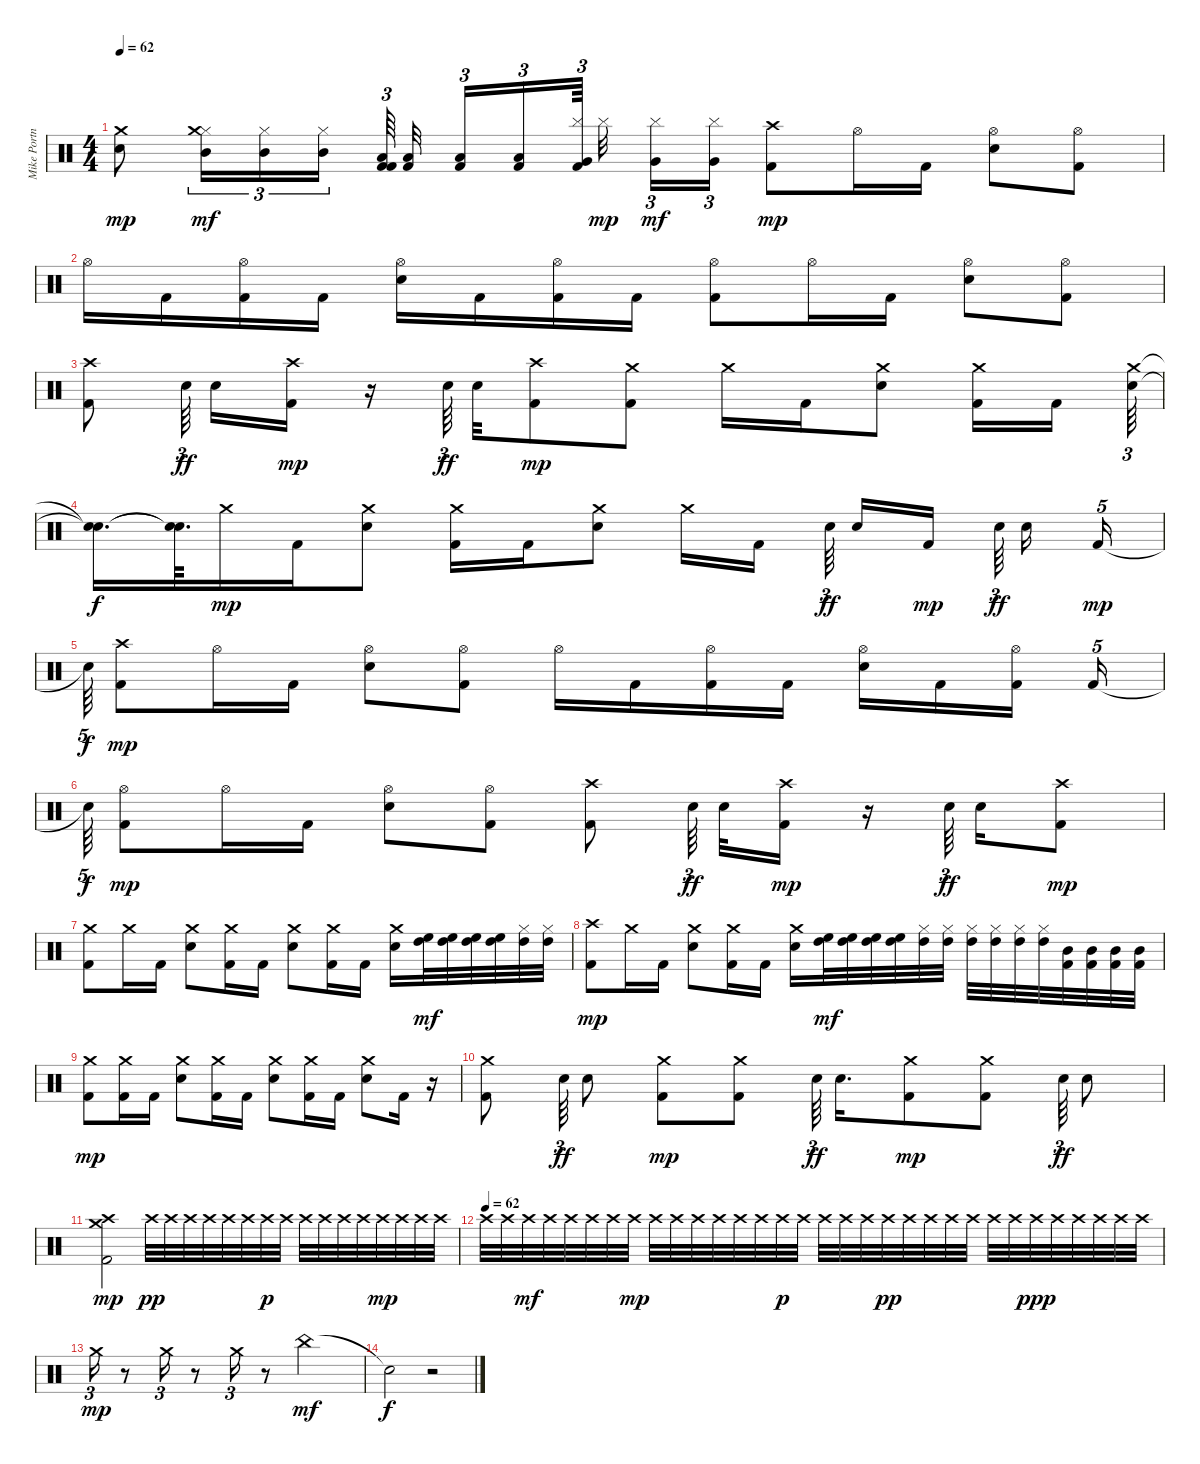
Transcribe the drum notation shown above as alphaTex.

\track ("Mike Portnoy" "Mike Portn") {instrument percussion}
\staff {score}
\articulation defaults
\ts (4 4)
\tempo 62
\clef neutral
\ks c
("Electric Snare (hit)" "Crash medium (hit)").8{dy mp} ("Hi-Hat (closed)" "Crash medium (hit)" "Mid Tom (hit)").16{tu (3 2) dy mf balance 2} ("Hi-Hat (closed)" "Mid Tom (hit)").16{tu (3 2)} ("Hi-Hat (closed)" "Mid Tom (hit)").16{tu (3 2)} ("Kick (hit) 2" "Kick (hit) 2" "Low Tom (hit)").64{tu (3 2) balance 5} ("Kick (hit) 2" "Low Tom (hit)").32 ("Kick (hit) 2" "Low Tom (hit)").16{tu (3 2)} ("Kick (hit) 2" "Low Tom (hit)").16{tu (3 2)} ("Kick (hit) 2" "Cymbal (hit)" "Very Low Tom (hit)").64{tu (3 2) balance 10} "Cymbal (hit)".32{dy mp} ("Cymbal (hit)" "Very Low Tom (hit)").16{tu (3 2) dy mf} ("Cymbal (hit)" "Very Low Tom (hit)").16{tu (3 2)} ("Kick (hit) 2" "Crash high (hit)").8{dy mp} "Hi-Hat (open)".16 "Kick (hit) 2".16 ("Electric Snare (hit)" "Hi-Hat (open)").8 ("Kick (hit) 2" "Hi-Hat (open)").8 |
"Hi-Hat (open)".16 "Kick (hit) 2".16 ("Kick (hit) 2" "Hi-Hat (open)").16 "Kick (hit) 2".16 ("Electric Snare (hit)" "Hi-Hat (open)").16 "Kick (hit) 2".16 ("Kick (hit) 2" "Hi-Hat (open)").16 "Kick (hit) 2".16 ("Kick (hit) 2" "Hi-Hat (open)").8 "Hi-Hat (open)".16 "Kick (hit) 2".16 ("Electric Snare (hit)" "Hi-Hat (open)").8 ("Kick (hit) 2" "Hi-Hat (open)").8 |
("Kick (hit) 2" "Crash high (hit)").8 "Electric Snare (hit)".64{tu (3 2) dy ff} "Electric Snare (hit)".16 ("Kick (hit) 2" "Crash high (hit)").16{dy mp} r.16 "Electric Snare (hit)".64{tu (3 2) dy ff} "Electric Snare (hit)".32 ("Kick (hit) 2" "Crash high (hit)").8{dy mp} ("Kick (hit) 2" "Crash medium (hit)").8 "Crash medium (hit)".16 "Kick (hit) 2".16 ("Electric Snare (hit)" "Crash medium (hit)").8 ("Kick (hit) 2" "Crash medium (hit)").16 "Kick (hit) 2".16 ("Electric Snare (hit)" "Crash medium (hit)").64{tu (3 2)} |
("Snare (hit)"{t} "Snare (hit)"{t}).16{d dy f} ("Snare (hit)"{t} "Snare (hit)"{t}).64{d} "Crash medium (hit)".16{dy mp} "Kick (hit) 2".16 ("Electric Snare (hit)" "Crash medium (hit)").8 ("Kick (hit) 2" "Crash medium (hit)").16 "Kick (hit) 2".16 ("Electric Snare (hit)" "Crash medium (hit)").8 "Crash medium (hit)".16 "Kick (hit) 2".16 "Electric Snare (hit)".64{tu (3 2) dy ff} "Electric Snare (hit)".16 "Kick (hit) 2".16{dy mp} "Electric Snare (hit)".64{tu (3 2) dy ff} "Electric Snare (hit)".16 "Kick (hit) 2".16{tu (5 4) dy mp} |
"Snare (hit)"{t}.64{tu (5 4) dy f} ("Kick (hit) 2" "Crash high (hit)").8{dy mp} "Hi-Hat (open)".16 "Kick (hit) 2".16 ("Electric Snare (hit)" "Hi-Hat (open)").8 ("Kick (hit) 2" "Hi-Hat (open)").8 "Hi-Hat (open)".16 "Kick (hit) 2".16 ("Kick (hit) 2" "Hi-Hat (open)").16 "Kick (hit) 2".16 ("Electric Snare (hit)" "Hi-Hat (open)").16 "Kick (hit) 2".16 ("Kick (hit) 2" "Hi-Hat (open)").16 "Kick (hit) 2".16{tu (5 4)} |
"Snare (hit)"{t}.64{tu (5 4) dy f} ("Kick (hit) 2" "Hi-Hat (open)").8{dy mp} "Hi-Hat (open)".16 "Kick (hit) 2".16 ("Electric Snare (hit)" "Hi-Hat (open)").8 ("Kick (hit) 2" "Hi-Hat (open)").8 ("Kick (hit) 2" "Crash high (hit)").8 "Electric Snare (hit)".64{tu (3 2) dy ff} "Electric Snare (hit)".32 ("Kick (hit) 2" "Crash high (hit)").16{dy mp} r.16 "Electric Snare (hit)".64{tu (3 2) dy ff} "Electric Snare (hit)".16 ("Kick (hit) 2" "Crash high (hit)").8{dy mp} |
("Kick (hit) 2" "Crash medium (hit)").8 "Crash medium (hit)".16 "Kick (hit) 2".16 ("Electric Snare (hit)" "Crash medium (hit)").8 ("Kick (hit) 2" "Crash medium (hit)").16 "Kick (hit) 2".16 ("Electric Snare (hit)" "Crash medium (hit)").8 ("Kick (hit) 2" "Crash medium (hit)").16 "Kick (hit) 2".16 ("Electric Snare (hit)" "Crash medium (hit)").16 ("High Tom (hit)" "High Floor Tom (hit)").32{dy mf balance 0} ("High Tom (hit)" "High Floor Tom (hit)").32 ("High Tom (hit)" "High Floor Tom (hit)").32 ("High Tom (hit)" "High Floor Tom (hit)").32 ("Hi-Hat (closed)" "High Tom (hit)").32{balance 2} ("Hi-Hat (closed)" "High Tom (hit)").32 |
("Kick (hit) 2" "Crash high (hit)").8{dy mp} "Crash medium (hit)".16 "Kick (hit) 2".16 ("Electric Snare (hit)" "Crash medium (hit)").8 ("Kick (hit) 2" "Crash medium (hit)").16 "Kick (hit) 2".16 ("Electric Snare (hit)" "Crash medium (hit)").16 ("High Tom (hit)" "High Floor Tom (hit)").32{dy mf balance 0} ("High Tom (hit)" "High Floor Tom (hit)").32 ("High Tom (hit)" "High Floor Tom (hit)").32 ("High Tom (hit)" "High Floor Tom (hit)").32 ("Hi-Hat (closed)" "High Tom (hit)").32{balance 2} ("Hi-Hat (closed)" "High Tom (hit)").32 ("Hi-Hat (closed)" "High Tom (hit)").32 ("Hi-Hat (closed)" "High Tom (hit)").32 ("Hi-Hat (closed)" "High Tom (hit)").32 ("Hi-Hat (closed)" "High Tom (hit)").32 ("Kick (hit) 2" "Mid Tom (hit)").32{balance 5} ("Kick (hit) 2" "Mid Tom (hit)").32 ("Kick (hit) 2" "Mid Tom (hit)").32 ("Kick (hit) 2" "Mid Tom (hit)").32 |
("Kick (hit) 2" "Crash medium (hit)").8{dy mp} ("Kick (hit) 2" "Crash medium (hit)").16 "Kick (hit) 2".16 ("Electric Snare (hit)" "Crash medium (hit)").8 ("Kick (hit) 2" "Crash medium (hit)").16 "Kick (hit) 2".16 ("Electric Snare (hit)" "Crash medium (hit)").8 ("Kick (hit) 2" "Crash medium (hit)").16 "Kick (hit) 2".16 ("Electric Snare (hit)" "Crash medium (hit)").8 "Kick (hit) 2".16 r.16 |
("Kick (hit) 2" "Crash medium (hit)").8 "Electric Snare (hit)".64{tu (3 2) dy ff} "Electric Snare (hit)".8 ("Kick (hit) 2" "Crash medium (hit)").8{dy mp} ("Kick (hit) 2" "Crash medium (hit)").8 "Electric Snare (hit)".64{tu (3 2) dy ff} "Electric Snare (hit)".16{d} ("Kick (hit) 2" "Crash medium (hit)").8{dy mp} ("Kick (hit) 2" "Crash medium (hit)").8 "Electric Snare (hit)".64{tu (3 2) dy ff} "Electric Snare (hit)".8 |
("Kick (hit) 2" "Crash medium (hit)" "Crash high (hit)").2{dy mp} "Crash high (hit)".32{dy pp volume 8} "Crash high (hit)".32 "Crash high (hit)".32 "Crash high (hit)".32 "Crash high (hit)".32 "Crash high (hit)".32 "Crash high (hit)".32{dy p} "Crash high (hit)".32 "Crash high (hit)".32 "Crash high (hit)".32 "Crash high (hit)".32 "Crash high (hit)".32 "Crash high (hit)".32{dy mp} "Crash high (hit)".32 "Crash high (hit)".32 "Crash high (hit)".32 |
\tempo (62)
"Crash high (hit)".32 "Crash high (hit)".32 "Crash high (hit)".32{dy mf} "Crash high (hit)".32 "Crash high (hit)".32 "Crash high (hit)".32 "Crash high (hit)".32 "Crash high (hit)".32{dy mp} "Crash high (hit)".32 "Crash high (hit)".32 "Crash high (hit)".32 "Crash high (hit)".32 "Crash high (hit)".32 "Crash high (hit)".32 "Crash high (hit)".32{dy p} "Crash high (hit)".32 "Crash high (hit)".32 "Crash high (hit)".32 "Crash high (hit)".32 "Crash high (hit)".32{dy pp} "Crash high (hit)".32 "Crash high (hit)".32 "Crash high (hit)".32 "Crash high (hit)".32 "Crash high (hit)".32 "Crash high (hit)".32 "Crash high (hit)".32{dy ppp} "Crash high (hit)".32 "Crash high (hit)".32 "Crash high (hit)".32 "Crash high (hit)".32 "Crash high (hit)".32 |
"Crash medium (hit)".16{tu (3 2) dy mp} r.8 "Crash medium (hit)".16{tu (3 2)} r.8 "Crash medium (hit)".16{tu (3 2)} r.8 "China (hit)".2{dy mf} |
"Snare (hit)"{t}.2{dy f} r.2
